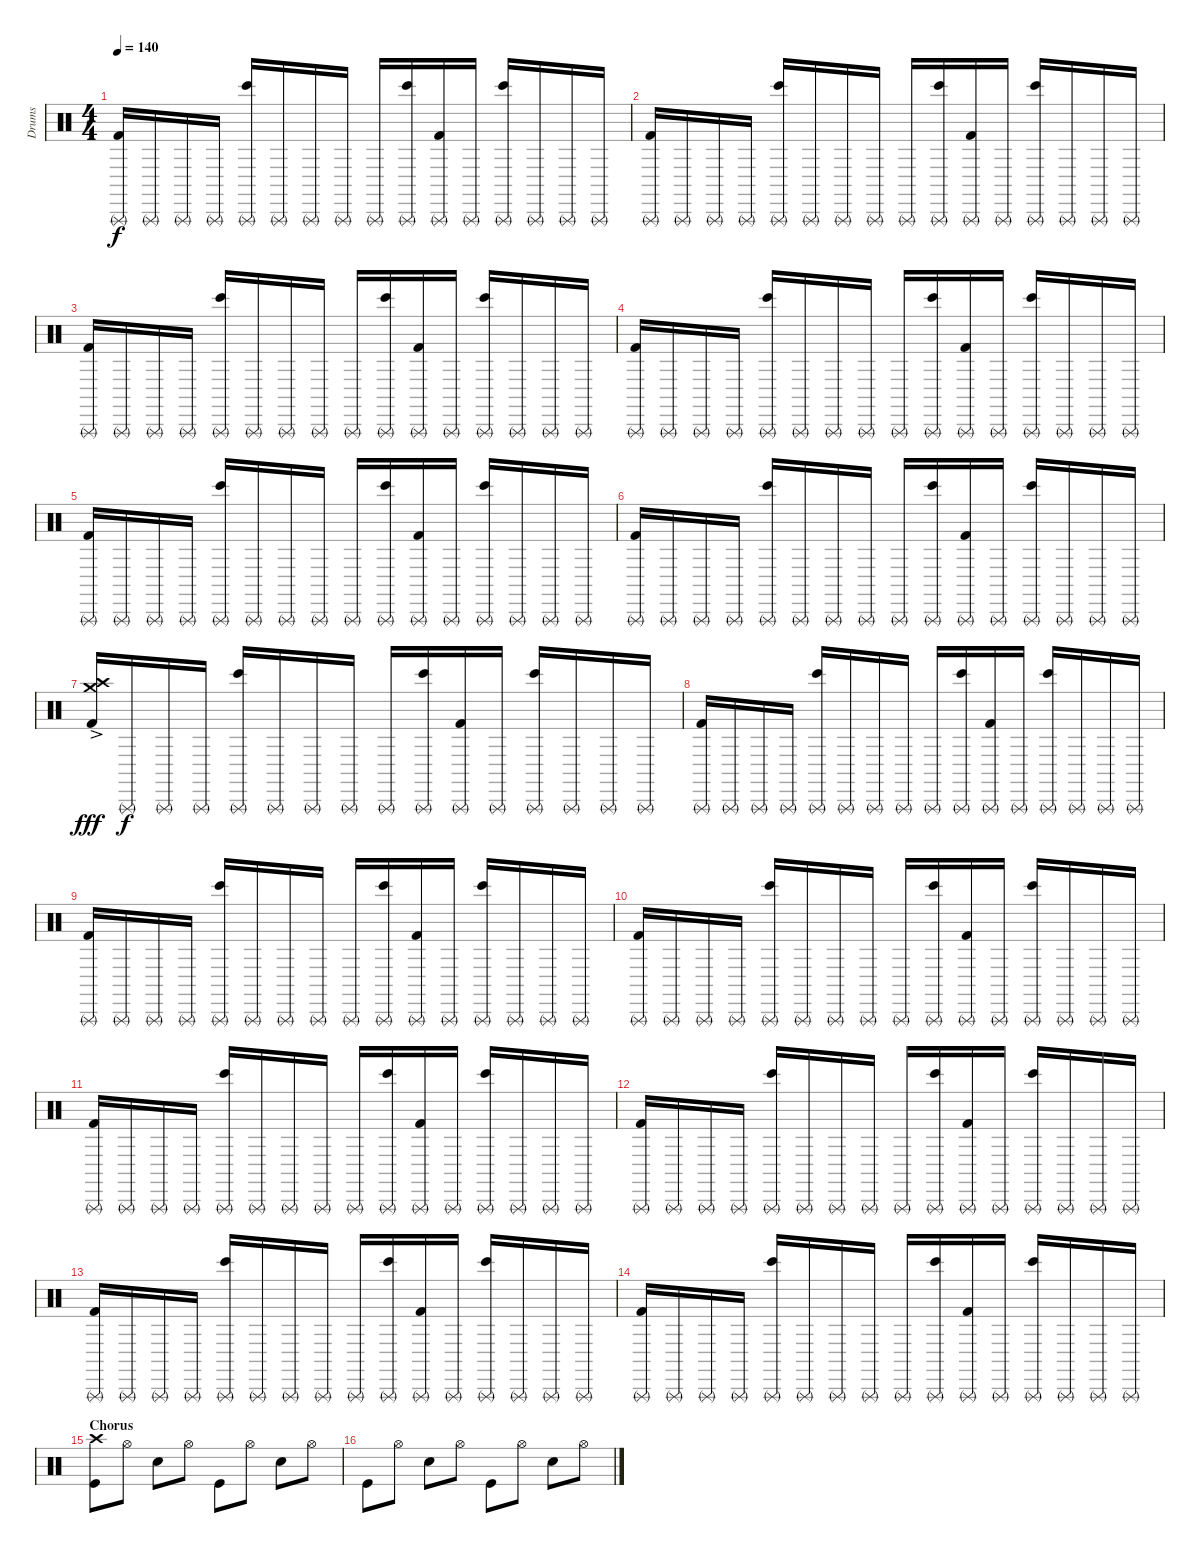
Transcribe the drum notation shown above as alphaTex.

\track ("Drums" "Drums") {instrument percussion}
\staff {score}
\articulation defaults
\ts (4 4)
\tempo 140
\clef neutral
\ks c
("Triangle (rnute)" "Kick (hit) 2").16{dy f} "Triangle (rnute)".16 "Triangle (rnute)".16 "Triangle (rnute)".16 ("Triangle (rnute)" "Bongo High (hit)").16 "Triangle (rnute)".16 "Triangle (rnute)".16 "Triangle (rnute)".16 "Triangle (rnute)".16 ("Triangle (rnute)" "Bongo High (hit)").16 ("Triangle (rnute)" "Kick (hit) 2").16 "Triangle (rnute)".16 ("Triangle (rnute)" "Bongo High (hit)").16 "Triangle (rnute)".16 "Triangle (rnute)".16 "Triangle (rnute)".16 |
("Triangle (rnute)" "Kick (hit) 2").16 "Triangle (rnute)".16 "Triangle (rnute)".16 "Triangle (rnute)".16 ("Triangle (rnute)" "Bongo High (hit)").16 "Triangle (rnute)".16 "Triangle (rnute)".16 "Triangle (rnute)".16 "Triangle (rnute)".16 ("Triangle (rnute)" "Bongo High (hit)").16 ("Triangle (rnute)" "Kick (hit) 2").16 "Triangle (rnute)".16 ("Triangle (rnute)" "Bongo High (hit)").16 "Triangle (rnute)".16 "Triangle (rnute)".16 "Triangle (rnute)".16 |
("Triangle (rnute)" "Kick (hit) 2").16 "Triangle (rnute)".16 "Triangle (rnute)".16 "Triangle (rnute)".16 ("Triangle (rnute)" "Bongo High (hit)").16 "Triangle (rnute)".16 "Triangle (rnute)".16 "Triangle (rnute)".16 "Triangle (rnute)".16 ("Triangle (rnute)" "Bongo High (hit)").16 ("Triangle (rnute)" "Kick (hit) 2").16 "Triangle (rnute)".16 ("Triangle (rnute)" "Bongo High (hit)").16 "Triangle (rnute)".16 "Triangle (rnute)".16 "Triangle (rnute)".16 |
("Triangle (rnute)" "Kick (hit) 2").16 "Triangle (rnute)".16 "Triangle (rnute)".16 "Triangle (rnute)".16 ("Triangle (rnute)" "Bongo High (hit)").16 "Triangle (rnute)".16 "Triangle (rnute)".16 "Triangle (rnute)".16 "Triangle (rnute)".16 ("Triangle (rnute)" "Bongo High (hit)").16 ("Triangle (rnute)" "Kick (hit) 2").16 "Triangle (rnute)".16 ("Triangle (rnute)" "Bongo High (hit)").16 "Triangle (rnute)".16 "Triangle (rnute)".16 "Triangle (rnute)".16 |
("Triangle (rnute)" "Kick (hit) 2").16 "Triangle (rnute)".16 "Triangle (rnute)".16 "Triangle (rnute)".16 ("Triangle (rnute)" "Bongo High (hit)").16 "Triangle (rnute)".16 "Triangle (rnute)".16 "Triangle (rnute)".16 "Triangle (rnute)".16 ("Triangle (rnute)" "Bongo High (hit)").16 ("Triangle (rnute)" "Kick (hit) 2").16 "Triangle (rnute)".16 ("Triangle (rnute)" "Bongo High (hit)").16 "Triangle (rnute)".16 "Triangle (rnute)".16 "Triangle (rnute)".16 |
("Triangle (rnute)" "Kick (hit) 2").16 "Triangle (rnute)".16 "Triangle (rnute)".16 "Triangle (rnute)".16 ("Triangle (rnute)" "Bongo High (hit)").16 "Triangle (rnute)".16 "Triangle (rnute)".16 "Triangle (rnute)".16 "Triangle (rnute)".16 ("Triangle (rnute)" "Bongo High (hit)").16 ("Triangle (rnute)" "Kick (hit) 2").16 "Triangle (rnute)".16 ("Triangle (rnute)" "Bongo High (hit)").16 "Triangle (rnute)".16 "Triangle (rnute)".16 "Triangle (rnute)".16 |
("Crash medium (hit)"{ac} "Crash high (hit)"{ac} "Kick (hit) 2"{ac}).16{dy fff} "Triangle (rnute)".16{dy f} "Triangle (rnute)".16 "Triangle (rnute)".16 ("Triangle (rnute)" "Bongo High (hit)").16 "Triangle (rnute)".16 "Triangle (rnute)".16 "Triangle (rnute)".16 "Triangle (rnute)".16 ("Triangle (rnute)" "Bongo High (hit)").16 ("Triangle (rnute)" "Kick (hit) 2").16 "Triangle (rnute)".16 ("Triangle (rnute)" "Bongo High (hit)").16 "Triangle (rnute)".16 "Triangle (rnute)".16 "Triangle (rnute)".16 |
("Triangle (rnute)" "Kick (hit) 2").16 "Triangle (rnute)".16 "Triangle (rnute)".16 "Triangle (rnute)".16 ("Triangle (rnute)" "Bongo High (hit)").16 "Triangle (rnute)".16 "Triangle (rnute)".16 "Triangle (rnute)".16 "Triangle (rnute)".16 ("Triangle (rnute)" "Bongo High (hit)").16 ("Triangle (rnute)" "Kick (hit) 2").16 "Triangle (rnute)".16 ("Triangle (rnute)" "Bongo High (hit)").16 "Triangle (rnute)".16 "Triangle (rnute)".16 "Triangle (rnute)".16 |
("Triangle (rnute)" "Kick (hit) 2").16 "Triangle (rnute)".16 "Triangle (rnute)".16 "Triangle (rnute)".16 ("Triangle (rnute)" "Bongo High (hit)").16 "Triangle (rnute)".16 "Triangle (rnute)".16 "Triangle (rnute)".16 "Triangle (rnute)".16 ("Triangle (rnute)" "Bongo High (hit)").16 ("Triangle (rnute)" "Kick (hit) 2").16 "Triangle (rnute)".16 ("Triangle (rnute)" "Bongo High (hit)").16 "Triangle (rnute)".16 "Triangle (rnute)".16 "Triangle (rnute)".16 |
("Triangle (rnute)" "Kick (hit) 2").16 "Triangle (rnute)".16 "Triangle (rnute)".16 "Triangle (rnute)".16 ("Triangle (rnute)" "Bongo High (hit)").16 "Triangle (rnute)".16 "Triangle (rnute)".16 "Triangle (rnute)".16 "Triangle (rnute)".16 ("Triangle (rnute)" "Bongo High (hit)").16 ("Triangle (rnute)" "Kick (hit) 2").16 "Triangle (rnute)".16 ("Triangle (rnute)" "Bongo High (hit)").16 "Triangle (rnute)".16 "Triangle (rnute)".16 "Triangle (rnute)".16 |
("Triangle (rnute)" "Kick (hit) 2").16 "Triangle (rnute)".16 "Triangle (rnute)".16 "Triangle (rnute)".16 ("Triangle (rnute)" "Bongo High (hit)").16 "Triangle (rnute)".16 "Triangle (rnute)".16 "Triangle (rnute)".16 "Triangle (rnute)".16 ("Triangle (rnute)" "Bongo High (hit)").16 ("Triangle (rnute)" "Kick (hit) 2").16 "Triangle (rnute)".16 ("Triangle (rnute)" "Bongo High (hit)").16 "Triangle (rnute)".16 "Triangle (rnute)".16 "Triangle (rnute)".16 |
("Triangle (rnute)" "Kick (hit) 2").16 "Triangle (rnute)".16 "Triangle (rnute)".16 "Triangle (rnute)".16 ("Triangle (rnute)" "Bongo High (hit)").16 "Triangle (rnute)".16 "Triangle (rnute)".16 "Triangle (rnute)".16 "Triangle (rnute)".16 ("Triangle (rnute)" "Bongo High (hit)").16 ("Triangle (rnute)" "Kick (hit) 2").16 "Triangle (rnute)".16 ("Triangle (rnute)" "Bongo High (hit)").16 "Triangle (rnute)".16 "Triangle (rnute)".16 "Triangle (rnute)".16 |
("Triangle (rnute)" "Kick (hit) 2").16 "Triangle (rnute)".16 "Triangle (rnute)".16 "Triangle (rnute)".16 ("Triangle (rnute)" "Bongo High (hit)").16 "Triangle (rnute)".16 "Triangle (rnute)".16 "Triangle (rnute)".16 "Triangle (rnute)".16 ("Triangle (rnute)" "Bongo High (hit)").16 ("Triangle (rnute)" "Kick (hit) 2").16 "Triangle (rnute)".16 ("Triangle (rnute)" "Bongo High (hit)").16 "Triangle (rnute)".16 "Triangle (rnute)".16 "Triangle (rnute)".16 |
("Triangle (rnute)" "Kick (hit) 2").16 "Triangle (rnute)".16 "Triangle (rnute)".16 "Triangle (rnute)".16 ("Triangle (rnute)" "Bongo High (hit)").16 "Triangle (rnute)".16 "Triangle (rnute)".16 "Triangle (rnute)".16 "Triangle (rnute)".16 ("Triangle (rnute)" "Bongo High (hit)").16 ("Triangle (rnute)" "Kick (hit) 2").16 "Triangle (rnute)".16 ("Triangle (rnute)" "Bongo High (hit)").16 "Triangle (rnute)".16 "Triangle (rnute)".16 "Triangle (rnute)".16 |
\section ("" "Chorus")
("Crash high (hit)" "Kick (hit)").8 "Hi-Hat (open)".8 "Snare (hit) 2".8 "Hi-Hat (open)".8 "Kick (hit)".8 "Hi-Hat (open)".8 "Snare (hit) 2".8 "Hi-Hat (open)".8 |
"Kick (hit)".8 "Hi-Hat (open)".8 "Snare (hit) 2".8 "Hi-Hat (open)".8 "Kick (hit)".8 "Hi-Hat (open)".8 "Snare (hit) 2".8 "Hi-Hat (open)".8
